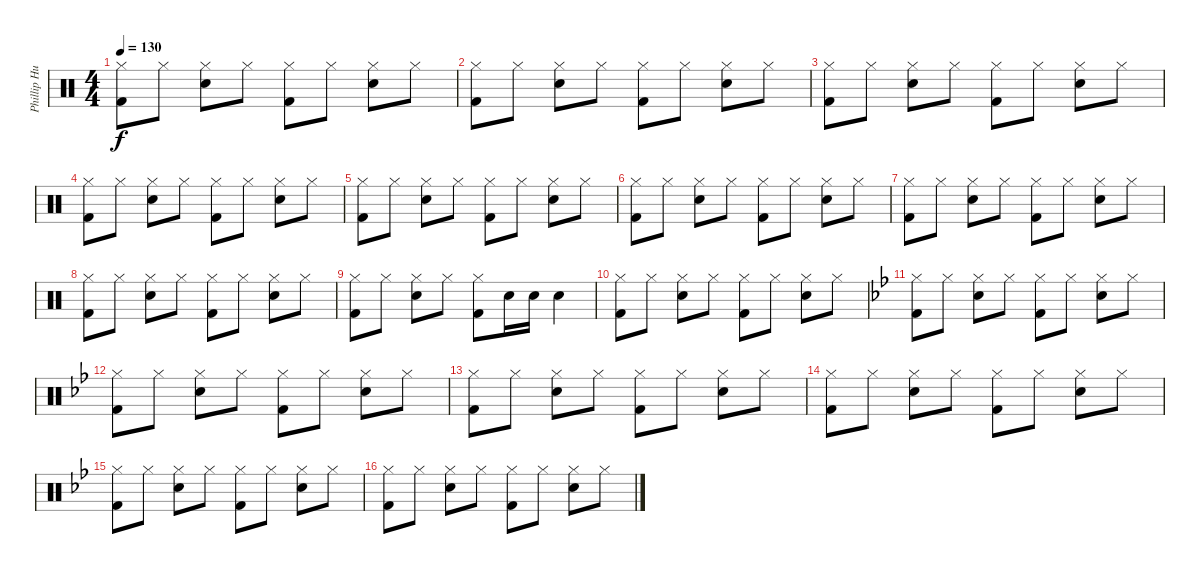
\track ("Phillip Hungh" "Phillip Hu") {instrument percussion}
\staff {score}
\articulation defaults
\ts (4 4)
\tempo 130
\clef neutral
\ks c
("Hi-Hat (closed)" "Kick (hit) 2").8{dy f} "Hi-Hat (closed)".8 ("Hi-Hat (closed)" "Snare (hit) 2").8 "Hi-Hat (closed)".8 ("Hi-Hat (closed)" "Kick (hit) 2").8 "Hi-Hat (closed)".8 ("Hi-Hat (closed)" "Snare (hit) 2").8 "Hi-Hat (closed)".8 |
("Hi-Hat (closed)" "Kick (hit) 2").8 "Hi-Hat (closed)".8 ("Hi-Hat (closed)" "Snare (hit) 2").8 "Hi-Hat (closed)".8 ("Hi-Hat (closed)" "Kick (hit) 2").8 "Hi-Hat (closed)".8 ("Hi-Hat (closed)" "Snare (hit) 2").8 "Hi-Hat (closed)".8 |
("Hi-Hat (closed)" "Kick (hit) 2").8 "Hi-Hat (closed)".8 ("Hi-Hat (closed)" "Snare (hit) 2").8 "Hi-Hat (closed)".8 ("Hi-Hat (closed)" "Kick (hit) 2").8 "Hi-Hat (closed)".8 ("Hi-Hat (closed)" "Snare (hit) 2").8 "Hi-Hat (closed)".8 |
("Hi-Hat (closed)" "Kick (hit) 2").8 "Hi-Hat (closed)".8 ("Hi-Hat (closed)" "Snare (hit) 2").8 "Hi-Hat (closed)".8 ("Hi-Hat (closed)" "Kick (hit) 2").8 "Hi-Hat (closed)".8 ("Hi-Hat (closed)" "Snare (hit) 2").8 "Hi-Hat (closed)".8 |
("Hi-Hat (closed)" "Kick (hit) 2").8 "Hi-Hat (closed)".8 ("Hi-Hat (closed)" "Snare (hit) 2").8 "Hi-Hat (closed)".8 ("Hi-Hat (closed)" "Kick (hit) 2").8 "Hi-Hat (closed)".8 ("Hi-Hat (closed)" "Snare (hit) 2").8 "Hi-Hat (closed)".8 |
("Hi-Hat (closed)" "Kick (hit) 2").8 "Hi-Hat (closed)".8 ("Hi-Hat (closed)" "Snare (hit) 2").8 "Hi-Hat (closed)".8 ("Hi-Hat (closed)" "Kick (hit) 2").8 "Hi-Hat (closed)".8 ("Hi-Hat (closed)" "Snare (hit) 2").8 "Hi-Hat (closed)".8 |
("Hi-Hat (closed)" "Kick (hit) 2").8 "Hi-Hat (closed)".8 ("Hi-Hat (closed)" "Snare (hit) 2").8 "Hi-Hat (closed)".8 ("Hi-Hat (closed)" "Kick (hit) 2").8 "Hi-Hat (closed)".8 ("Hi-Hat (closed)" "Snare (hit) 2").8 "Hi-Hat (closed)".8 |
("Hi-Hat (closed)" "Kick (hit) 2").8 "Hi-Hat (closed)".8 ("Hi-Hat (closed)" "Snare (hit) 2").8 "Hi-Hat (closed)".8 ("Hi-Hat (closed)" "Kick (hit) 2").8 "Hi-Hat (closed)".8 ("Hi-Hat (closed)" "Snare (hit) 2").8 "Hi-Hat (closed)".8 |
("Hi-Hat (closed)" "Kick (hit) 2").8 "Hi-Hat (closed)".8 ("Hi-Hat (closed)" "Snare (hit) 2").8 "Hi-Hat (closed)".8 ("Hi-Hat (closed)" "Kick (hit) 2").8 "Snare (hit) 2".16 "Snare (hit) 2".16 "Snare (hit) 2".4 |
("Hi-Hat (closed)" "Kick (hit) 2").8 "Hi-Hat (closed)".8 ("Hi-Hat (closed)" "Snare (hit) 2").8 "Hi-Hat (closed)".8 ("Hi-Hat (closed)" "Kick (hit) 2").8 "Hi-Hat (closed)".8 ("Hi-Hat (closed)" "Snare (hit) 2").8 "Hi-Hat (closed)".8 |
\ks bb
("Hi-Hat (closed)" "Kick (hit) 2").8 "Hi-Hat (closed)".8 ("Hi-Hat (closed)" "Snare (hit) 2").8 "Hi-Hat (closed)".8 ("Hi-Hat (closed)" "Kick (hit) 2").8 "Hi-Hat (closed)".8 ("Hi-Hat (closed)" "Snare (hit) 2").8 "Hi-Hat (closed)".8 |
("Hi-Hat (closed)" "Kick (hit) 2").8 "Hi-Hat (closed)".8 ("Hi-Hat (closed)" "Snare (hit) 2").8 "Hi-Hat (closed)".8 ("Hi-Hat (closed)" "Kick (hit) 2").8 "Hi-Hat (closed)".8 ("Hi-Hat (closed)" "Snare (hit) 2").8 "Hi-Hat (closed)".8 |
("Hi-Hat (closed)" "Kick (hit) 2").8 "Hi-Hat (closed)".8 ("Hi-Hat (closed)" "Snare (hit) 2").8 "Hi-Hat (closed)".8 ("Hi-Hat (closed)" "Kick (hit) 2").8 "Hi-Hat (closed)".8 ("Hi-Hat (closed)" "Snare (hit) 2").8 "Hi-Hat (closed)".8 |
("Hi-Hat (closed)" "Kick (hit) 2").8 "Hi-Hat (closed)".8 ("Hi-Hat (closed)" "Snare (hit) 2").8 "Hi-Hat (closed)".8 ("Hi-Hat (closed)" "Kick (hit) 2").8 "Hi-Hat (closed)".8 ("Hi-Hat (closed)" "Snare (hit) 2").8 "Hi-Hat (closed)".8 |
("Hi-Hat (closed)" "Kick (hit) 2").8 "Hi-Hat (closed)".8 ("Hi-Hat (closed)" "Snare (hit) 2").8 "Hi-Hat (closed)".8 ("Hi-Hat (closed)" "Kick (hit) 2").8 "Hi-Hat (closed)".8 ("Hi-Hat (closed)" "Snare (hit) 2").8 "Hi-Hat (closed)".8 |
("Hi-Hat (closed)" "Kick (hit) 2").8 "Hi-Hat (closed)".8 ("Hi-Hat (closed)" "Snare (hit) 2").8 "Hi-Hat (closed)".8 ("Hi-Hat (closed)" "Kick (hit) 2").8 "Hi-Hat (closed)".8 ("Hi-Hat (closed)" "Snare (hit) 2").8 "Hi-Hat (closed)".8
